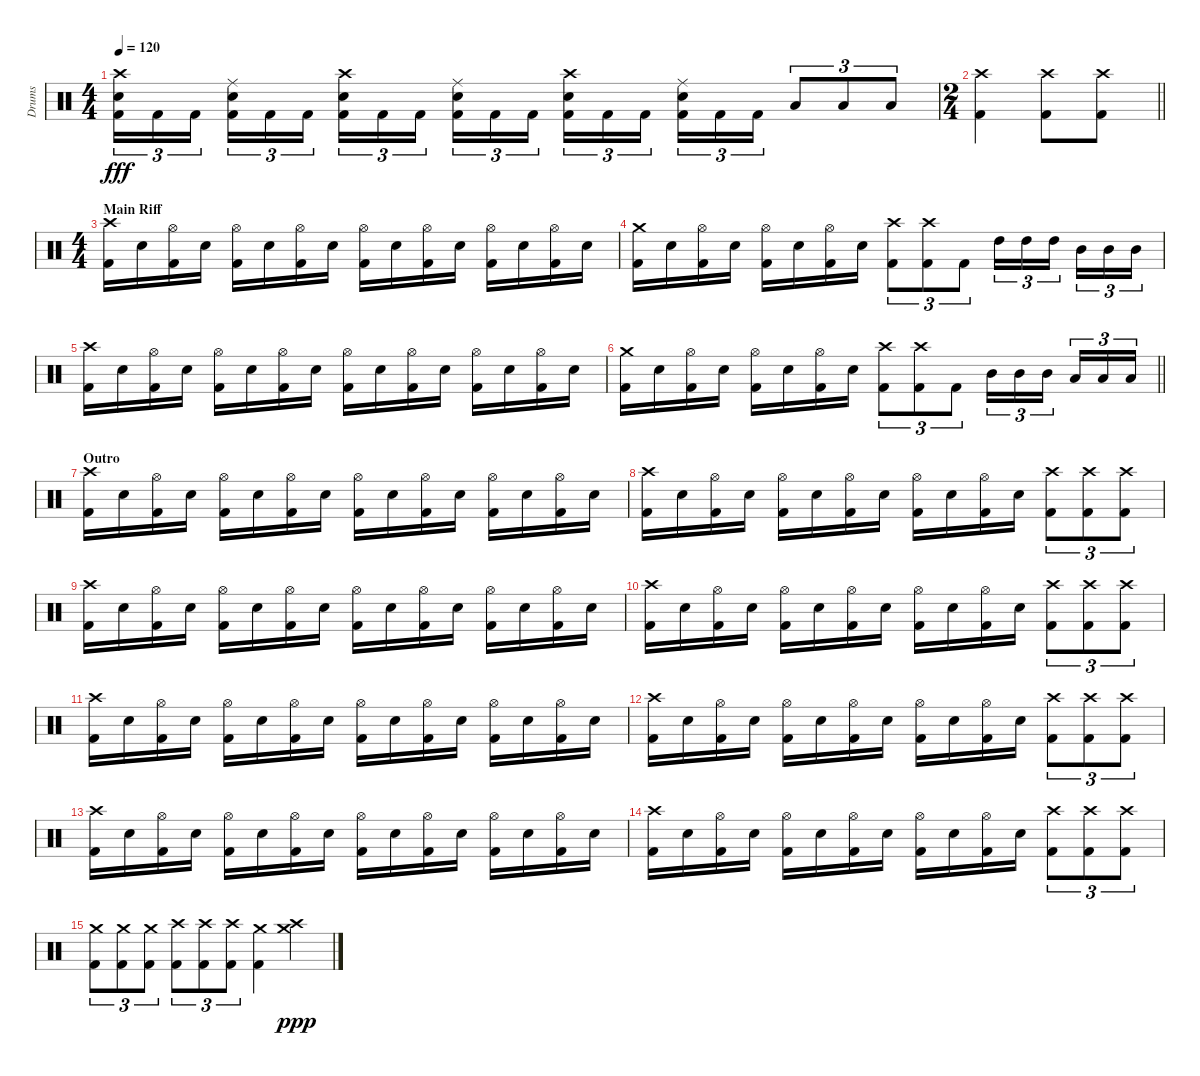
\track ("Drums" "Drums") {instrument percussion}
\staff {score}
\articulation defaults
\ts (4 4)
\tempo 120
\clef neutral
\ks c
("Crash high (hit)" "Snare (hit) 2" "Kick (hit) 2").16{tu (3 2) dy fff} "Kick (hit) 2".16{tu (3 2)} "Kick (hit) 2".16{tu (3 2) beam splitsecondary} ("Ride (middle)" "Snare (hit) 2" "Kick (hit) 2").16{tu (3 2)} "Kick (hit) 2".16{tu (3 2)} "Kick (hit) 2".16{tu (3 2)} ("Crash high (hit)" "Snare (hit) 2" "Kick (hit) 2").16{tu (3 2)} "Kick (hit) 2".16{tu (3 2)} "Kick (hit) 2".16{tu (3 2) beam splitsecondary} ("Ride (middle)" "Snare (hit) 2" "Kick (hit) 2").16{tu (3 2)} "Kick (hit) 2".16{tu (3 2)} "Kick (hit) 2".16{tu (3 2)} ("Crash high (hit)" "Snare (hit) 2" "Kick (hit) 2").16{tu (3 2)} "Kick (hit) 2".16{tu (3 2)} "Kick (hit) 2".16{tu (3 2) beam splitsecondary} ("Ride (middle)" "Snare (hit) 2" "Kick (hit) 2").16{tu (3 2)} "Kick (hit) 2".16{tu (3 2)} "Kick (hit) 2".16{tu (3 2)} "Low Tom (hit)".8{tu (3 2)} "Low Tom (hit)".8{tu (3 2)} "Low Tom (hit)".8{tu (3 2)} |
\ts (2 4)
\barLineRight lightlight
("Crash high (hit)" "Kick (hit) 2").4 ("Crash high (hit)" "Kick (hit) 2").8 ("Crash high (hit)" "Kick (hit) 2").8 |
\ts (4 4)
\section ("" "Main Riff")
("Crash high (hit)" "Kick (hit) 2").16 "Snare (hit) 2".16 ("Hi-Hat (open)" "Kick (hit) 2").16 "Snare (hit) 2".16 ("Hi-Hat (open)" "Kick (hit) 2").16 "Snare (hit) 2".16 ("Hi-Hat (open)" "Kick (hit) 2").16 "Snare (hit) 2".16 ("Hi-Hat (open)" "Kick (hit) 2").16 "Snare (hit) 2".16 ("Hi-Hat (open)" "Kick (hit) 2").16 "Snare (hit) 2".16 ("Hi-Hat (open)" "Kick (hit) 2").16 "Snare (hit) 2".16 ("Hi-Hat (open)" "Kick (hit) 2").16 "Snare (hit) 2".16 |
("Crash medium (hit)" "Kick (hit) 2").16 "Snare (hit) 2".16 ("Hi-Hat (open)" "Kick (hit) 2").16 "Snare (hit) 2".16 ("Hi-Hat (open)" "Kick (hit) 2").16 "Snare (hit) 2".16 ("Hi-Hat (open)" "Kick (hit) 2").16 "Snare (hit) 2".16 ("Crash high (hit)" "Kick (hit) 2").8{tu (3 2)} ("Crash high (hit)" "Kick (hit) 2").8{tu (3 2)} "Kick (hit) 2".8{tu (3 2)} "High Tom (hit)".16{tu (3 2)} "High Tom (hit)".16{tu (3 2)} "High Tom (hit)".16{tu (3 2) beam splitsecondary} "Mid Tom (hit)".16{tu (3 2)} "Mid Tom (hit)".16{tu (3 2)} "Mid Tom (hit)".16{tu (3 2)} |
("Crash high (hit)" "Kick (hit) 2").16 "Snare (hit) 2".16 ("Hi-Hat (open)" "Kick (hit) 2").16 "Snare (hit) 2".16 ("Hi-Hat (open)" "Kick (hit) 2").16 "Snare (hit) 2".16 ("Hi-Hat (open)" "Kick (hit) 2").16 "Snare (hit) 2".16 ("Hi-Hat (open)" "Kick (hit) 2").16 "Snare (hit) 2".16 ("Hi-Hat (open)" "Kick (hit) 2").16 "Snare (hit) 2".16 ("Hi-Hat (open)" "Kick (hit) 2").16 "Snare (hit) 2".16 ("Hi-Hat (open)" "Kick (hit) 2").16 "Snare (hit) 2".16 |
\barLineRight lightlight
("Crash medium (hit)" "Kick (hit) 2").16 "Snare (hit) 2".16 ("Hi-Hat (open)" "Kick (hit) 2").16 "Snare (hit) 2".16 ("Hi-Hat (open)" "Kick (hit) 2").16 "Snare (hit) 2".16 ("Hi-Hat (open)" "Kick (hit) 2").16 "Snare (hit) 2".16 ("Crash high (hit)" "Kick (hit) 2").8{tu (3 2)} ("Crash high (hit)" "Kick (hit) 2").8{tu (3 2)} "Kick (hit) 2".8{tu (3 2)} "Mid Tom (hit)".16{tu (3 2)} "Mid Tom (hit)".16{tu (3 2)} "Mid Tom (hit)".16{tu (3 2) beam splitsecondary} "Low Tom (hit)".16{tu (3 2)} "Low Tom (hit)".16{tu (3 2)} "Low Tom (hit)".16{tu (3 2)} |
\section ("" "Outro")
("Crash high (hit)" "Kick (hit) 2").16 "Snare (hit) 2".16 ("Hi-Hat (open)" "Kick (hit) 2").16 "Snare (hit) 2".16 ("Hi-Hat (open)" "Kick (hit) 2").16 "Snare (hit) 2".16 ("Hi-Hat (open)" "Kick (hit) 2").16 "Snare (hit) 2".16 ("Hi-Hat (open)" "Kick (hit) 2").16 "Snare (hit) 2".16 ("Hi-Hat (open)" "Kick (hit) 2").16 "Snare (hit) 2".16 ("Hi-Hat (open)" "Kick (hit) 2").16 "Snare (hit) 2".16 ("Hi-Hat (open)" "Kick (hit) 2").16 "Snare (hit) 2".16 |
("Crash high (hit)" "Kick (hit) 2").16 "Snare (hit) 2".16 ("Hi-Hat (open)" "Kick (hit) 2").16 "Snare (hit) 2".16 ("Hi-Hat (open)" "Kick (hit) 2").16 "Snare (hit) 2".16 ("Hi-Hat (open)" "Kick (hit) 2").16 "Snare (hit) 2".16 ("Hi-Hat (open)" "Kick (hit) 2").16 "Snare (hit) 2".16 ("Hi-Hat (open)" "Kick (hit) 2").16 "Snare (hit) 2".16 ("Crash high (hit)" "Kick (hit) 2").8{tu (3 2)} ("Crash high (hit)" "Kick (hit) 2").8{tu (3 2)} ("Crash high (hit)" "Kick (hit) 2").8{tu (3 2)} |
("Crash high (hit)" "Kick (hit) 2").16 "Snare (hit) 2".16 ("Hi-Hat (open)" "Kick (hit) 2").16 "Snare (hit) 2".16 ("Hi-Hat (open)" "Kick (hit) 2").16 "Snare (hit) 2".16 ("Hi-Hat (open)" "Kick (hit) 2").16 "Snare (hit) 2".16 ("Hi-Hat (open)" "Kick (hit) 2").16 "Snare (hit) 2".16 ("Hi-Hat (open)" "Kick (hit) 2").16 "Snare (hit) 2".16 ("Hi-Hat (open)" "Kick (hit) 2").16 "Snare (hit) 2".16 ("Hi-Hat (open)" "Kick (hit) 2").16 "Snare (hit) 2".16 |
("Crash high (hit)" "Kick (hit) 2").16 "Snare (hit) 2".16 ("Hi-Hat (open)" "Kick (hit) 2").16 "Snare (hit) 2".16 ("Hi-Hat (open)" "Kick (hit) 2").16 "Snare (hit) 2".16 ("Hi-Hat (open)" "Kick (hit) 2").16 "Snare (hit) 2".16 ("Hi-Hat (open)" "Kick (hit) 2").16 "Snare (hit) 2".16 ("Hi-Hat (open)" "Kick (hit) 2").16 "Snare (hit) 2".16 ("Crash high (hit)" "Kick (hit) 2").8{tu (3 2)} ("Crash high (hit)" "Kick (hit) 2").8{tu (3 2)} ("Crash high (hit)" "Kick (hit) 2").8{tu (3 2)} |
("Crash high (hit)" "Kick (hit) 2").16 "Snare (hit) 2".16 ("Hi-Hat (open)" "Kick (hit) 2").16 "Snare (hit) 2".16 ("Hi-Hat (open)" "Kick (hit) 2").16 "Snare (hit) 2".16 ("Hi-Hat (open)" "Kick (hit) 2").16 "Snare (hit) 2".16 ("Hi-Hat (open)" "Kick (hit) 2").16 "Snare (hit) 2".16 ("Hi-Hat (open)" "Kick (hit) 2").16 "Snare (hit) 2".16 ("Hi-Hat (open)" "Kick (hit) 2").16 "Snare (hit) 2".16 ("Hi-Hat (open)" "Kick (hit) 2").16 "Snare (hit) 2".16 |
("Crash high (hit)" "Kick (hit) 2").16 "Snare (hit) 2".16 ("Hi-Hat (open)" "Kick (hit) 2").16 "Snare (hit) 2".16 ("Hi-Hat (open)" "Kick (hit) 2").16 "Snare (hit) 2".16 ("Hi-Hat (open)" "Kick (hit) 2").16 "Snare (hit) 2".16 ("Hi-Hat (open)" "Kick (hit) 2").16 "Snare (hit) 2".16 ("Hi-Hat (open)" "Kick (hit) 2").16 "Snare (hit) 2".16 ("Crash high (hit)" "Kick (hit) 2").8{tu (3 2)} ("Crash high (hit)" "Kick (hit) 2").8{tu (3 2)} ("Crash high (hit)" "Kick (hit) 2").8{tu (3 2)} |
("Crash high (hit)" "Kick (hit) 2").16 "Snare (hit) 2".16 ("Hi-Hat (open)" "Kick (hit) 2").16 "Snare (hit) 2".16 ("Hi-Hat (open)" "Kick (hit) 2").16 "Snare (hit) 2".16 ("Hi-Hat (open)" "Kick (hit) 2").16 "Snare (hit) 2".16 ("Hi-Hat (open)" "Kick (hit) 2").16 "Snare (hit) 2".16 ("Hi-Hat (open)" "Kick (hit) 2").16 "Snare (hit) 2".16 ("Hi-Hat (open)" "Kick (hit) 2").16 "Snare (hit) 2".16 ("Hi-Hat (open)" "Kick (hit) 2").16 "Snare (hit) 2".16 |
("Crash high (hit)" "Kick (hit) 2").16 "Snare (hit) 2".16 ("Hi-Hat (open)" "Kick (hit) 2").16 "Snare (hit) 2".16 ("Hi-Hat (open)" "Kick (hit) 2").16 "Snare (hit) 2".16 ("Hi-Hat (open)" "Kick (hit) 2").16 "Snare (hit) 2".16 ("Hi-Hat (open)" "Kick (hit) 2").16 "Snare (hit) 2".16 ("Hi-Hat (open)" "Kick (hit) 2").16 "Snare (hit) 2".16 ("Crash high (hit)" "Kick (hit) 2").8{tu (3 2)} ("Crash high (hit)" "Kick (hit) 2").8{tu (3 2)} ("Crash high (hit)" "Kick (hit) 2").8{tu (3 2)} |
("Crash medium (hit)" "Kick (hit) 2").8{tu (3 2)} ("Crash medium (hit)" "Kick (hit) 2").8{tu (3 2)} ("Crash medium (hit)" "Kick (hit) 2").8{tu (3 2)} ("Crash high (hit)" "Kick (hit) 2").8{tu (3 2)} ("Crash high (hit)" "Kick (hit) 2").8{tu (3 2)} ("Crash high (hit)" "Kick (hit) 2").8{tu (3 2)} ("Crash medium (hit)" "Kick (hit) 2").4 ("Crash high (hit)" "Crash medium (hit)").4{dy ppp volume 0}
